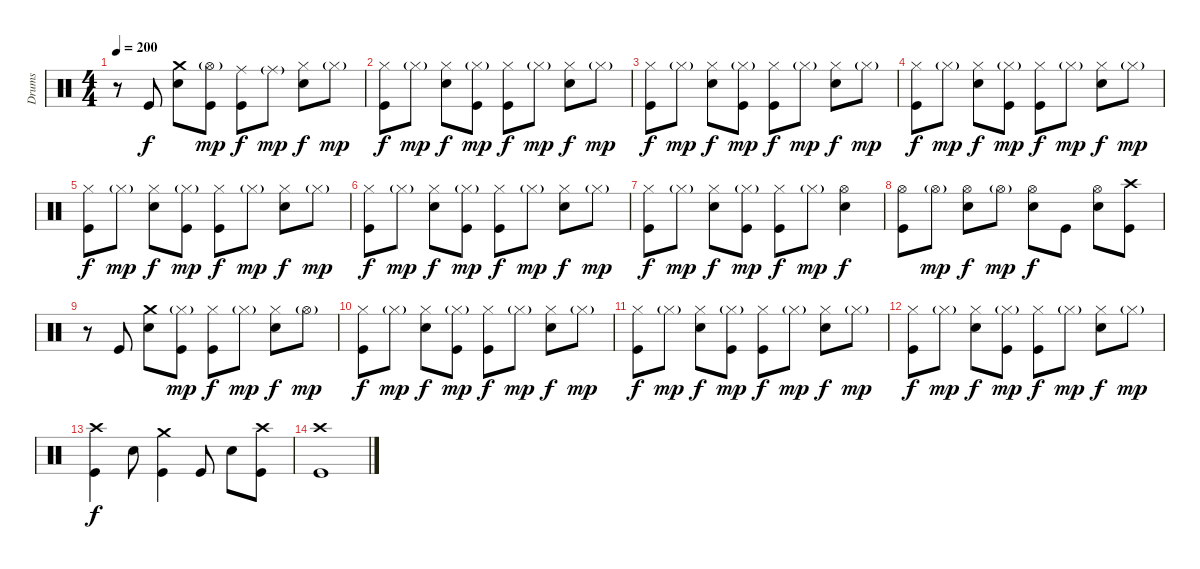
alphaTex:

\track ("Drums" "Drums") {instrument percussion}
\staff {score}
\articulation defaults
\ts (4 4)
\tempo 200
\clef neutral
\ks c
r.8{dy f} "Kick (hit)".8 ("Crash medium (hit)" "Electric Snare (hit)").8 ("Hi-Hat (open)"{g} "Kick (hit)").8{dy mp} ("Ride (middle)" "Kick (hit)").8{dy f} "Ride (middle)"{g}.8{dy mp} ("Hi-Hat (closed)" "Electric Snare (hit)").8{dy f} "Hi-Hat (closed)"{g}.8{dy mp} |
("Hi-Hat (closed)" "Kick (hit)").8{dy f} "Hi-Hat (closed)"{g}.8{dy mp} ("Hi-Hat (closed)" "Electric Snare (hit)").8{dy f} ("Hi-Hat (closed)"{g} "Kick (hit)").8{dy mp} ("Hi-Hat (closed)" "Kick (hit)").8{dy f} "Hi-Hat (closed)"{g}.8{dy mp} ("Hi-Hat (closed)" "Electric Snare (hit)").8{dy f} "Hi-Hat (closed)"{g}.8{dy mp} |
("Hi-Hat (closed)" "Kick (hit)").8{dy f} "Hi-Hat (closed)"{g}.8{dy mp} ("Hi-Hat (closed)" "Electric Snare (hit)").8{dy f} ("Hi-Hat (closed)"{g} "Kick (hit)").8{dy mp} ("Hi-Hat (closed)" "Kick (hit)").8{dy f} "Hi-Hat (closed)"{g}.8{dy mp} ("Hi-Hat (closed)" "Electric Snare (hit)").8{dy f} "Hi-Hat (closed)"{g}.8{dy mp} |
("Hi-Hat (closed)" "Kick (hit)").8{dy f} "Hi-Hat (closed)"{g}.8{dy mp} ("Hi-Hat (closed)" "Electric Snare (hit)").8{dy f} ("Hi-Hat (closed)"{g} "Kick (hit)").8{dy mp} ("Hi-Hat (closed)" "Kick (hit)").8{dy f} "Hi-Hat (closed)"{g}.8{dy mp} ("Hi-Hat (closed)" "Electric Snare (hit)").8{dy f} "Hi-Hat (closed)"{g}.8{dy mp} |
("Hi-Hat (closed)" "Kick (hit)").8{dy f} "Hi-Hat (closed)"{g}.8{dy mp} ("Hi-Hat (closed)" "Electric Snare (hit)").8{dy f} ("Hi-Hat (closed)"{g} "Kick (hit)").8{dy mp} ("Hi-Hat (closed)" "Kick (hit)").8{dy f} "Hi-Hat (closed)"{g}.8{dy mp} ("Hi-Hat (closed)" "Electric Snare (hit)").8{dy f} "Hi-Hat (closed)"{g}.8{dy mp} |
("Hi-Hat (closed)" "Kick (hit)").8{dy f} "Hi-Hat (closed)"{g}.8{dy mp} ("Hi-Hat (closed)" "Electric Snare (hit)").8{dy f} ("Hi-Hat (closed)"{g} "Kick (hit)").8{dy mp} ("Hi-Hat (closed)" "Kick (hit)").8{dy f} "Hi-Hat (closed)"{g}.8{dy mp} ("Hi-Hat (closed)" "Electric Snare (hit)").8{dy f} "Hi-Hat (closed)"{g}.8{dy mp} |
("Hi-Hat (closed)" "Kick (hit)").8{dy f} "Hi-Hat (closed)"{g}.8{dy mp} ("Hi-Hat (closed)" "Electric Snare (hit)").8{dy f} ("Hi-Hat (closed)"{g} "Kick (hit)").8{dy mp} ("Hi-Hat (closed)" "Kick (hit)").8{dy f} "Hi-Hat (closed)"{g}.8{dy mp} ("Hi-Hat (open)" "Electric Snare (hit)").4{dy f} |
("Hi-Hat (open)" "Kick (hit)").8 "Hi-Hat (open)"{g}.8{dy mp} ("Hi-Hat (open)" "Electric Snare (hit)").8{dy f} "Hi-Hat (open)"{g}.8{dy mp} ("Hi-Hat (open)" "Electric Snare (hit)").8{dy f} "Kick (hit)".8 ("Hi-Hat (open)" "Electric Snare (hit)").8 ("Crash high (hit)" "Kick (hit)").8 |
r.8 "Kick (hit)".8 ("Crash medium (hit)" "Electric Snare (hit)").8 ("Hi-Hat (closed)"{g} "Kick (hit)").8{dy mp} ("Hi-Hat (closed)" "Kick (hit)").8{dy f} "Hi-Hat (closed)"{g}.8{dy mp} ("Hi-Hat (closed)" "Electric Snare (hit)").8{dy f} "Hi-Hat (open)"{g}.8{dy mp} |
("Hi-Hat (closed)" "Kick (hit)").8{dy f} "Hi-Hat (closed)"{g}.8{dy mp} ("Hi-Hat (closed)" "Electric Snare (hit)").8{dy f} ("Hi-Hat (closed)"{g} "Kick (hit)").8{dy mp} ("Hi-Hat (closed)" "Kick (hit)").8{dy f} "Hi-Hat (closed)"{g}.8{dy mp} ("Hi-Hat (closed)" "Electric Snare (hit)").8{dy f} "Hi-Hat (closed)"{g}.8{dy mp} |
("Hi-Hat (closed)" "Kick (hit)").8{dy f} "Hi-Hat (closed)"{g}.8{dy mp} ("Hi-Hat (closed)" "Electric Snare (hit)").8{dy f} ("Hi-Hat (closed)"{g} "Kick (hit)").8{dy mp} ("Hi-Hat (closed)" "Kick (hit)").8{dy f} "Hi-Hat (closed)"{g}.8{dy mp} ("Hi-Hat (closed)" "Electric Snare (hit)").8{dy f} "Hi-Hat (closed)"{g}.8{dy mp} |
("Hi-Hat (closed)" "Kick (hit)").8{dy f} "Hi-Hat (closed)"{g}.8{dy mp} ("Hi-Hat (closed)" "Electric Snare (hit)").8{dy f} ("Hi-Hat (closed)"{g} "Kick (hit)").8{dy mp} ("Hi-Hat (closed)" "Kick (hit)").8{dy f} "Hi-Hat (closed)"{g}.8{dy mp} ("Hi-Hat (closed)" "Electric Snare (hit)").8{dy f} "Hi-Hat (closed)"{g}.8{dy mp} |
("Crash high (hit)" "Kick (hit)").4{dy f} "Electric Snare (hit)".8 ("Crash medium (hit)" "Kick (hit)").4 "Kick (hit)".8 "Electric Snare (hit)".8 ("Crash high (hit)" "Kick (hit)").8 |
("Crash high (hit)" "Kick (hit)").1
